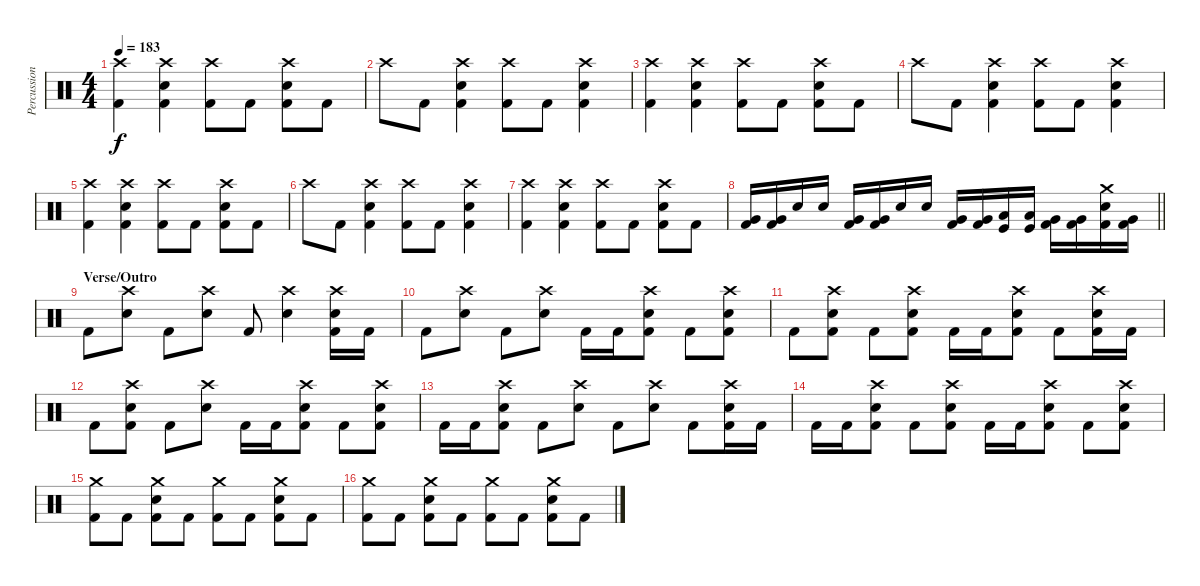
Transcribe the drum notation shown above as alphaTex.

\track ("Percussion" "Percussion") {instrument percussion}
\staff {score}
\articulation defaults
\ts (4 4)
\tempo 183
\clef neutral
\ks aminor
("Crash high (hit)" "Kick (hit) 2").4{dy f} ("Crash high (hit)" "Electric Snare (hit)" "Kick (hit) 2").4 ("Crash high (hit)" "Kick (hit) 2").8 "Kick (hit) 2".8 ("Crash high (hit)" "Electric Snare (hit)" "Kick (hit) 2").8 "Kick (hit) 2".8 |
"Crash high (hit)".8 "Kick (hit) 2".8 ("Crash high (hit)" "Electric Snare (hit)" "Kick (hit) 2").4 ("Crash high (hit)" "Kick (hit) 2").8 "Kick (hit) 2".8 ("Crash high (hit)" "Electric Snare (hit)" "Kick (hit) 2").4 |
("Crash high (hit)" "Kick (hit) 2").4 ("Crash high (hit)" "Electric Snare (hit)" "Kick (hit) 2").4 ("Crash high (hit)" "Kick (hit) 2").8 "Kick (hit) 2".8 ("Crash high (hit)" "Electric Snare (hit)" "Kick (hit) 2").8 "Kick (hit) 2".8 |
"Crash high (hit)".8 "Kick (hit) 2".8 ("Crash high (hit)" "Electric Snare (hit)" "Kick (hit) 2").4 ("Crash high (hit)" "Kick (hit) 2").8 "Kick (hit) 2".8 ("Crash high (hit)" "Electric Snare (hit)" "Kick (hit) 2").4 |
("Crash high (hit)" "Kick (hit) 2").4 ("Crash high (hit)" "Electric Snare (hit)" "Kick (hit) 2").4 ("Crash high (hit)" "Kick (hit) 2").8 "Kick (hit) 2".8 ("Crash high (hit)" "Electric Snare (hit)" "Kick (hit) 2").8 "Kick (hit) 2".8 |
"Crash high (hit)".8 "Kick (hit) 2".8 ("Crash high (hit)" "Electric Snare (hit)" "Kick (hit) 2").4 ("Crash high (hit)" "Kick (hit) 2").8 "Kick (hit) 2".8 ("Crash high (hit)" "Electric Snare (hit)" "Kick (hit) 2").4 |
("Crash high (hit)" "Kick (hit) 2").4 ("Crash high (hit)" "Electric Snare (hit)" "Kick (hit) 2").4 ("Crash high (hit)" "Kick (hit) 2").8 "Kick (hit) 2".8 ("Crash high (hit)" "Electric Snare (hit)" "Kick (hit) 2").8 "Kick (hit) 2".8 |
\barLineRight lightlight
("Very Low Tom (hit)" "Kick (hit) 2").16 ("Very Low Tom (hit)" "Kick (hit) 2").16 "Electric Snare (hit)".16 "Electric Snare (hit)".16 ("Very Low Tom (hit)" "Kick (hit) 2").16 ("Very Low Tom (hit)" "Kick (hit) 2").16 "Electric Snare (hit)".16 "Electric Snare (hit)".16 ("Very Low Tom (hit)" "Kick (hit) 2").16 ("Very Low Tom (hit)" "Kick (hit) 2").16 ("Low Floor Tom (hit)" "Kick (hit)").16 ("Low Floor Tom (hit)" "Kick (hit)").16 ("Very Low Tom (hit)" "Kick (hit) 2").16 ("Very Low Tom (hit)" "Kick (hit) 2").16 ("Crash medium (hit)" "Electric Snare (hit)" "Kick (hit) 2").16 ("Very Low Tom (hit)" "Kick (hit) 2").16 |
\section ("" "Verse/Outro")
"Kick (hit) 2".8 ("Crash high (hit)" "Electric Snare (hit)").8 "Kick (hit) 2".8 ("Crash high (hit)" "Electric Snare (hit)").8 "Kick (hit) 2".8 ("Crash high (hit)" "Electric Snare (hit)").4 ("Crash high (hit)" "Electric Snare (hit)" "Kick (hit) 2").16 "Kick (hit) 2".16 |
"Kick (hit) 2".8 ("Crash high (hit)" "Electric Snare (hit)").8 "Kick (hit) 2".8 ("Crash high (hit)" "Electric Snare (hit)").8 "Kick (hit) 2".16 "Kick (hit) 2".16 ("Crash high (hit)" "Electric Snare (hit)" "Kick (hit) 2").8 "Kick (hit) 2".8 ("Crash high (hit)" "Electric Snare (hit)" "Kick (hit) 2").8 |
"Kick (hit) 2".8 ("Crash high (hit)" "Electric Snare (hit)" "Kick (hit) 2").8 "Kick (hit) 2".8 ("Crash high (hit)" "Electric Snare (hit)" "Kick (hit) 2").8 "Kick (hit) 2".16 "Kick (hit) 2".16 ("Crash high (hit)" "Electric Snare (hit)" "Kick (hit) 2").8 "Kick (hit) 2".8 ("Crash high (hit)" "Electric Snare (hit)" "Kick (hit) 2").16 "Kick (hit) 2".16 |
"Kick (hit) 2".8 ("Crash high (hit)" "Electric Snare (hit)" "Kick (hit) 2").8 "Kick (hit) 2".8 ("Crash high (hit)" "Electric Snare (hit)").8 "Kick (hit) 2".16 "Kick (hit) 2".16 ("Crash high (hit)" "Electric Snare (hit)" "Kick (hit) 2").8 "Kick (hit) 2".8 ("Crash high (hit)" "Electric Snare (hit)" "Kick (hit) 2").8 |
"Kick (hit) 2".16 "Kick (hit) 2".16 ("Crash high (hit)" "Electric Snare (hit)" "Kick (hit) 2").8 "Kick (hit) 2".8 ("Crash high (hit)" "Electric Snare (hit)").8 "Kick (hit) 2".8 ("Crash high (hit)" "Electric Snare (hit)").8 "Kick (hit) 2".8 ("Crash high (hit)" "Electric Snare (hit)" "Kick (hit) 2").16 "Kick (hit) 2".16 |
"Kick (hit) 2".16 "Kick (hit) 2".16 ("Crash high (hit)" "Electric Snare (hit)" "Kick (hit) 2").8 "Kick (hit) 2".8 ("Crash high (hit)" "Electric Snare (hit)" "Kick (hit) 2").8 "Kick (hit) 2".16 "Kick (hit) 2".16 ("Crash high (hit)" "Electric Snare (hit)" "Kick (hit) 2").8 "Kick (hit) 2".8 ("Crash high (hit)" "Electric Snare (hit)" "Kick (hit) 2").8 |
("Crash medium (hit)" "Kick (hit) 2").8 "Kick (hit) 2".8 ("Crash medium (hit)" "Electric Snare (hit)" "Kick (hit) 2").8 "Kick (hit) 2".8 ("Crash medium (hit)" "Kick (hit) 2").8 "Kick (hit) 2".8 ("Crash medium (hit)" "Electric Snare (hit)" "Kick (hit) 2").8 "Kick (hit) 2".8 |
("Crash medium (hit)" "Kick (hit) 2").8 "Kick (hit) 2".8 ("Crash medium (hit)" "Electric Snare (hit)" "Kick (hit) 2").8 "Kick (hit) 2".8 ("Crash medium (hit)" "Kick (hit) 2").8 "Kick (hit) 2".8 ("Crash medium (hit)" "Electric Snare (hit)" "Kick (hit) 2").8 "Kick (hit) 2".8
